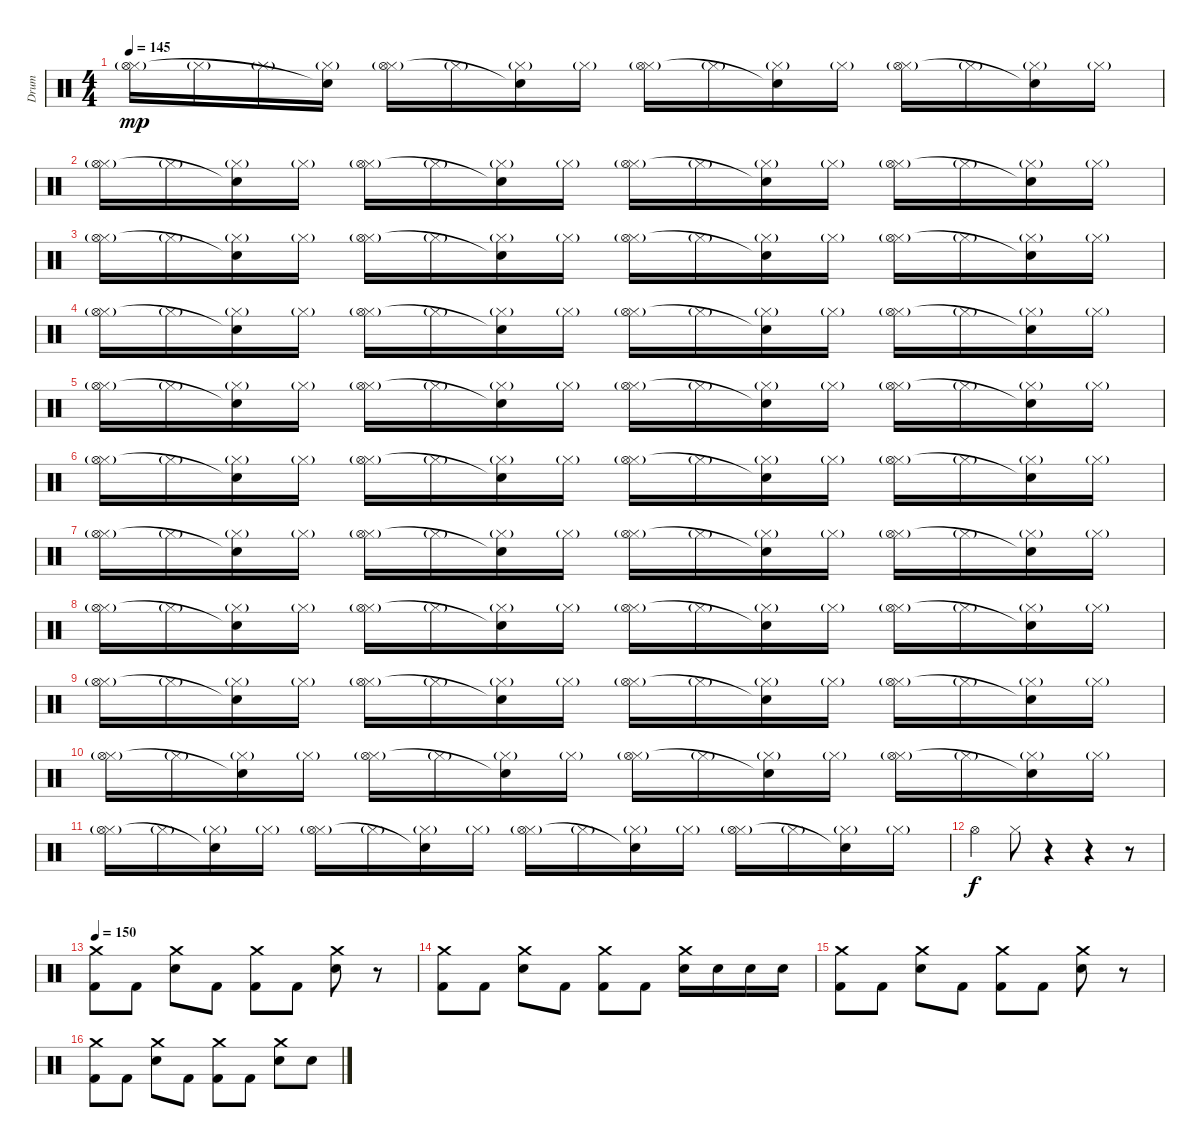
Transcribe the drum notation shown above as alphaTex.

\track ("Drum" "Drum") {instrument percussion}
\staff {score}
\articulation defaults
\ts (4 4)
\tempo 145
\clef neutral
\ks c
("Hi-Hat (closed)"{g} "Hi-Hat (open)").16{dy mp} "Hi-Hat (closed)"{g}.16 "Hi-Hat (closed)"{g}.16 ("Hi-Hat (closed)"{g} "Snare (hit)"{t}).16 ("Hi-Hat (closed)"{g} "Hi-Hat (open)").16 "Hi-Hat (closed)"{g}.16 ("Hi-Hat (closed)"{g} "Snare (hit)"{t}).16 "Hi-Hat (closed)"{g}.16 ("Hi-Hat (closed)"{g} "Hi-Hat (open)").16 "Hi-Hat (closed)"{g}.16 ("Hi-Hat (closed)"{g} "Snare (hit)"{t}).16 "Hi-Hat (closed)"{g}.16 ("Hi-Hat (closed)"{g} "Hi-Hat (open)").16 "Hi-Hat (closed)"{g}.16 ("Hi-Hat (closed)"{g} "Snare (hit)"{t}).16 "Hi-Hat (closed)"{g}.16 |
("Hi-Hat (closed)"{g} "Hi-Hat (open)").16 "Hi-Hat (closed)"{g}.16 ("Hi-Hat (closed)"{g} "Snare (hit)"{t}).16 "Hi-Hat (closed)"{g}.16 ("Hi-Hat (closed)"{g} "Hi-Hat (open)").16 "Hi-Hat (closed)"{g}.16 ("Hi-Hat (closed)"{g} "Snare (hit)"{t}).16 "Hi-Hat (closed)"{g}.16 ("Hi-Hat (closed)"{g} "Hi-Hat (open)").16 "Hi-Hat (closed)"{g}.16 ("Hi-Hat (closed)"{g} "Snare (hit)"{t}).16 "Hi-Hat (closed)"{g}.16 ("Hi-Hat (closed)"{g} "Hi-Hat (open)").16 "Hi-Hat (closed)"{g}.16 ("Hi-Hat (closed)"{g} "Snare (hit)"{t}).16 "Hi-Hat (closed)"{g}.16 |
("Hi-Hat (closed)"{g} "Hi-Hat (open)").16 "Hi-Hat (closed)"{g}.16 ("Hi-Hat (closed)"{g} "Snare (hit)"{t}).16 "Hi-Hat (closed)"{g}.16 ("Hi-Hat (closed)"{g} "Hi-Hat (open)").16 "Hi-Hat (closed)"{g}.16 ("Hi-Hat (closed)"{g} "Snare (hit)"{t}).16 "Hi-Hat (closed)"{g}.16 ("Hi-Hat (closed)"{g} "Hi-Hat (open)").16 "Hi-Hat (closed)"{g}.16 ("Hi-Hat (closed)"{g} "Snare (hit)"{t}).16 "Hi-Hat (closed)"{g}.16 ("Hi-Hat (closed)"{g} "Hi-Hat (open)").16 "Hi-Hat (closed)"{g}.16 ("Hi-Hat (closed)"{g} "Snare (hit)"{t}).16 "Hi-Hat (closed)"{g}.16 |
("Hi-Hat (closed)"{g} "Hi-Hat (open)").16 "Hi-Hat (closed)"{g}.16 ("Hi-Hat (closed)"{g} "Snare (hit)"{t}).16 "Hi-Hat (closed)"{g}.16 ("Hi-Hat (closed)"{g} "Hi-Hat (open)").16 "Hi-Hat (closed)"{g}.16 ("Hi-Hat (closed)"{g} "Snare (hit)"{t}).16 "Hi-Hat (closed)"{g}.16 ("Hi-Hat (closed)"{g} "Hi-Hat (open)").16 "Hi-Hat (closed)"{g}.16 ("Hi-Hat (closed)"{g} "Snare (hit)"{t}).16 "Hi-Hat (closed)"{g}.16 ("Hi-Hat (closed)"{g} "Hi-Hat (open)").16 "Hi-Hat (closed)"{g}.16 ("Hi-Hat (closed)"{g} "Snare (hit)"{t}).16 "Hi-Hat (closed)"{g}.16 |
("Hi-Hat (closed)"{g} "Hi-Hat (open)").16 "Hi-Hat (closed)"{g}.16 ("Hi-Hat (closed)"{g} "Snare (hit)"{t}).16 "Hi-Hat (closed)"{g}.16 ("Hi-Hat (closed)"{g} "Hi-Hat (open)").16 "Hi-Hat (closed)"{g}.16 ("Hi-Hat (closed)"{g} "Snare (hit)"{t}).16 "Hi-Hat (closed)"{g}.16 ("Hi-Hat (closed)"{g} "Hi-Hat (open)").16 "Hi-Hat (closed)"{g}.16 ("Hi-Hat (closed)"{g} "Snare (hit)"{t}).16 "Hi-Hat (closed)"{g}.16 ("Hi-Hat (closed)"{g} "Hi-Hat (open)").16 "Hi-Hat (closed)"{g}.16 ("Hi-Hat (closed)"{g} "Snare (hit)"{t}).16 "Hi-Hat (closed)"{g}.16 |
("Hi-Hat (closed)"{g} "Hi-Hat (open)").16 "Hi-Hat (closed)"{g}.16 ("Hi-Hat (closed)"{g} "Snare (hit)"{t}).16 "Hi-Hat (closed)"{g}.16 ("Hi-Hat (closed)"{g} "Hi-Hat (open)").16 "Hi-Hat (closed)"{g}.16 ("Hi-Hat (closed)"{g} "Snare (hit)"{t}).16 "Hi-Hat (closed)"{g}.16 ("Hi-Hat (closed)"{g} "Hi-Hat (open)").16 "Hi-Hat (closed)"{g}.16 ("Hi-Hat (closed)"{g} "Snare (hit)"{t}).16 "Hi-Hat (closed)"{g}.16 ("Hi-Hat (closed)"{g} "Hi-Hat (open)").16 "Hi-Hat (closed)"{g}.16 ("Hi-Hat (closed)"{g} "Snare (hit)"{t}).16 "Hi-Hat (closed)"{g}.16 |
("Hi-Hat (closed)"{g} "Hi-Hat (open)").16 "Hi-Hat (closed)"{g}.16 ("Hi-Hat (closed)"{g} "Snare (hit)"{t}).16 "Hi-Hat (closed)"{g}.16 ("Hi-Hat (closed)"{g} "Hi-Hat (open)").16 "Hi-Hat (closed)"{g}.16 ("Hi-Hat (closed)"{g} "Snare (hit)"{t}).16 "Hi-Hat (closed)"{g}.16 ("Hi-Hat (closed)"{g} "Hi-Hat (open)").16 "Hi-Hat (closed)"{g}.16 ("Hi-Hat (closed)"{g} "Snare (hit)"{t}).16 "Hi-Hat (closed)"{g}.16 ("Hi-Hat (closed)"{g} "Hi-Hat (open)").16 "Hi-Hat (closed)"{g}.16 ("Hi-Hat (closed)"{g} "Snare (hit)"{t}).16 "Hi-Hat (closed)"{g}.16 |
("Hi-Hat (closed)"{g} "Hi-Hat (open)").16 "Hi-Hat (closed)"{g}.16 ("Hi-Hat (closed)"{g} "Snare (hit)"{t}).16 "Hi-Hat (closed)"{g}.16 ("Hi-Hat (closed)"{g} "Hi-Hat (open)").16 "Hi-Hat (closed)"{g}.16 ("Hi-Hat (closed)"{g} "Snare (hit)"{t}).16 "Hi-Hat (closed)"{g}.16 ("Hi-Hat (closed)"{g} "Hi-Hat (open)").16 "Hi-Hat (closed)"{g}.16 ("Hi-Hat (closed)"{g} "Snare (hit)"{t}).16 "Hi-Hat (closed)"{g}.16 ("Hi-Hat (closed)"{g} "Hi-Hat (open)").16 "Hi-Hat (closed)"{g}.16 ("Hi-Hat (closed)"{g} "Snare (hit)"{t}).16 "Hi-Hat (closed)"{g}.16 |
("Hi-Hat (closed)"{g} "Hi-Hat (open)").16 "Hi-Hat (closed)"{g}.16 ("Hi-Hat (closed)"{g} "Snare (hit)"{t}).16 "Hi-Hat (closed)"{g}.16 ("Hi-Hat (closed)"{g} "Hi-Hat (open)").16 "Hi-Hat (closed)"{g}.16 ("Hi-Hat (closed)"{g} "Snare (hit)"{t}).16 "Hi-Hat (closed)"{g}.16 ("Hi-Hat (closed)"{g} "Hi-Hat (open)").16 "Hi-Hat (closed)"{g}.16 ("Hi-Hat (closed)"{g} "Snare (hit)"{t}).16 "Hi-Hat (closed)"{g}.16 ("Hi-Hat (closed)"{g} "Hi-Hat (open)").16 "Hi-Hat (closed)"{g}.16 ("Hi-Hat (closed)"{g} "Snare (hit)"{t}).16 "Hi-Hat (closed)"{g}.16 |
("Hi-Hat (closed)"{g} "Hi-Hat (open)").16 "Hi-Hat (closed)"{g}.16 ("Hi-Hat (closed)"{g} "Snare (hit)"{t}).16 "Hi-Hat (closed)"{g}.16 ("Hi-Hat (closed)"{g} "Hi-Hat (open)").16 "Hi-Hat (closed)"{g}.16 ("Hi-Hat (closed)"{g} "Snare (hit)"{t}).16 "Hi-Hat (closed)"{g}.16 ("Hi-Hat (closed)"{g} "Hi-Hat (open)").16 "Hi-Hat (closed)"{g}.16 ("Hi-Hat (closed)"{g} "Snare (hit)"{t}).16 "Hi-Hat (closed)"{g}.16 ("Hi-Hat (closed)"{g} "Hi-Hat (open)").16 "Hi-Hat (closed)"{g}.16 ("Hi-Hat (closed)"{g} "Snare (hit)"{t}).16 "Hi-Hat (closed)"{g}.16 |
("Hi-Hat (closed)"{g} "Hi-Hat (open)").16 "Hi-Hat (closed)"{g}.16 ("Hi-Hat (closed)"{g} "Snare (hit)"{t}).16 "Hi-Hat (closed)"{g}.16 ("Hi-Hat (closed)"{g} "Hi-Hat (open)").16 "Hi-Hat (closed)"{g}.16 ("Hi-Hat (closed)"{g} "Snare (hit)"{t}).16 "Hi-Hat (closed)"{g}.16 ("Hi-Hat (closed)"{g} "Hi-Hat (open)").16 "Hi-Hat (closed)"{g}.16 ("Hi-Hat (closed)"{g} "Snare (hit)"{t}).16 "Hi-Hat (closed)"{g}.16 ("Hi-Hat (closed)"{g} "Hi-Hat (open)").16 "Hi-Hat (closed)"{g}.16 ("Hi-Hat (closed)"{g} "Snare (hit)"{t}).16 "Hi-Hat (closed)"{g}.16 |
"Hi-Hat (open)".4{dy f} "Hi-Hat (closed)".8 r.4 r.4 r.8 |
\tempo 150
("Crash medium (hit)" "Kick (hit) 2").8 "Kick (hit) 2".8 ("Crash medium (hit)" "Electric Snare (hit)").8 "Kick (hit) 2".8 ("Crash medium (hit)" "Kick (hit) 2").8 "Kick (hit) 2".8 ("Crash medium (hit)" "Electric Snare (hit)").8 r.8 |
("Crash medium (hit)" "Kick (hit) 2").8 "Kick (hit) 2".8 ("Crash medium (hit)" "Electric Snare (hit)").8 "Kick (hit) 2".8 ("Crash medium (hit)" "Kick (hit) 2").8 "Kick (hit) 2".8 ("Crash medium (hit)" "Electric Snare (hit)").16 "Electric Snare (hit)".16 "Electric Snare (hit)".16 "Electric Snare (hit)".16 |
("Crash medium (hit)" "Kick (hit) 2").8 "Kick (hit) 2".8 ("Crash medium (hit)" "Electric Snare (hit)").8 "Kick (hit) 2".8 ("Crash medium (hit)" "Kick (hit) 2").8 "Kick (hit) 2".8 ("Crash medium (hit)" "Electric Snare (hit)").8 r.8 |
("Crash medium (hit)" "Kick (hit) 2").8 "Kick (hit) 2".8 ("Crash medium (hit)" "Electric Snare (hit)").8 "Kick (hit) 2".8 ("Crash medium (hit)" "Kick (hit) 2").8 "Kick (hit) 2".8 ("Crash medium (hit)" "Electric Snare (hit)").8 "Electric Snare (hit)".8
